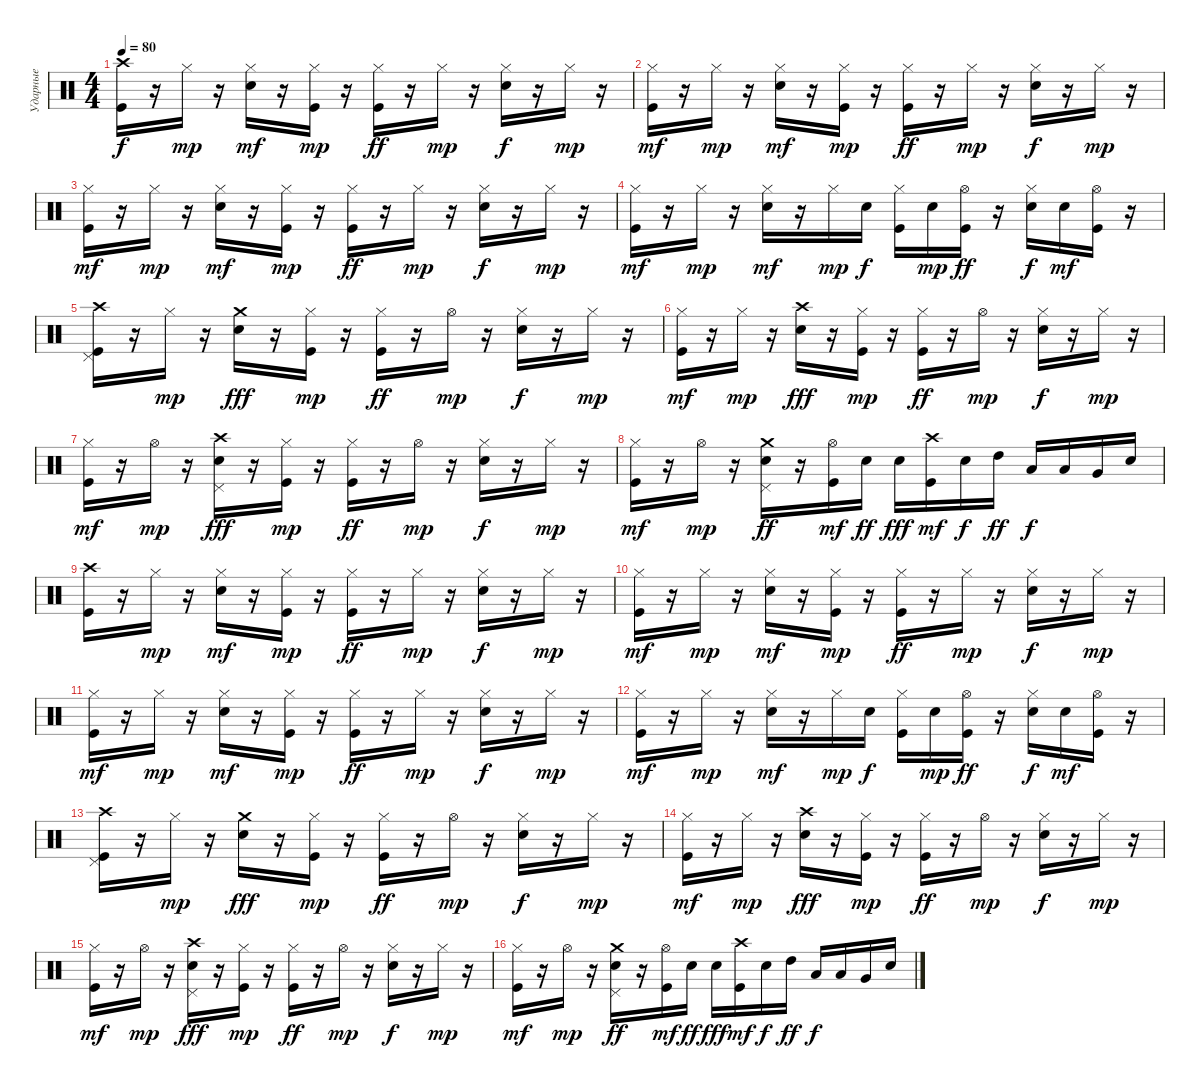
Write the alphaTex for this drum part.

\track ("Ударные" "Ударные") {instrument percussion}
\staff {score}
\articulation defaults
\ts (4 4)
\tempo 80
\clef neutral
\ks c
("Crash high (hit)" "Kick (hit)").16{dy f} r.16 "Hi-Hat (closed)".16{dy mp} r.16 ("Electric Snare (hit)" "Hi-Hat (closed)").16{dy mf} r.16 ("Kick (hit)" "Hi-Hat (closed)").16{dy mp} r.16 ("Hi-Hat (closed)" "Kick (hit)").16{dy ff} r.16 "Hi-Hat (closed)".16{dy mp} r.16 ("Electric Snare (hit)" "Hi-Hat (closed)").16{dy f} r.16 "Hi-Hat (closed)".16{dy mp} r.16 |
("Hi-Hat (closed)" "Kick (hit)").16{dy mf} r.16 "Hi-Hat (closed)".16{dy mp} r.16 ("Electric Snare (hit)" "Hi-Hat (closed)").16{dy mf} r.16 ("Kick (hit)" "Hi-Hat (closed)").16{dy mp} r.16 ("Hi-Hat (closed)" "Kick (hit)").16{dy ff} r.16 "Hi-Hat (closed)".16{dy mp} r.16 ("Electric Snare (hit)" "Hi-Hat (closed)").16{dy f} r.16 "Hi-Hat (closed)".16{dy mp} r.16 |
("Hi-Hat (closed)" "Kick (hit)").16{dy mf} r.16 "Hi-Hat (closed)".16{dy mp} r.16 ("Electric Snare (hit)" "Hi-Hat (closed)").16{dy mf} r.16 ("Kick (hit)" "Hi-Hat (closed)").16{dy mp} r.16 ("Hi-Hat (closed)" "Kick (hit)").16{dy ff} r.16 "Hi-Hat (closed)".16{dy mp} r.16 ("Electric Snare (hit)" "Hi-Hat (closed)").16{dy f} r.16 "Hi-Hat (closed)".16{dy mp} r.16 |
("Hi-Hat (closed)" "Kick (hit)").16{dy mf} r.16 "Hi-Hat (closed)".16{dy mp} r.16 ("Electric Snare (hit)" "Hi-Hat (closed)").16{dy mf} r.16 "Hi-Hat (closed)".16{dy mp} "Electric Snare (hit)".16{dy f} ("Hi-Hat (closed)" "Kick (hit)").16 "Electric Snare (hit)".16{dy mp} ("Hi-Hat (open)" "Kick (hit)").16{dy ff} r.16 ("Electric Snare (hit)" "Hi-Hat (closed)").16{dy f} "Electric Snare (hit)".16{dy mf} ("Hi-Hat (open)" "Kick (hit)").16 r.16 |
("Pedal Hi-Hat (hit)" "Crash high (hit)" "Kick (hit)").16 r.16 "Hi-Hat (closed)".16{dy mp} r.16 ("Electric Snare (hit)" "Crash medium (hit)").16{dy fff} r.16 ("Kick (hit)" "Hi-Hat (closed)").16{dy mp} r.16 ("Hi-Hat (closed)" "Kick (hit)").16{dy ff} r.16 "Hi-Hat (open)".16{dy mp} r.16 ("Electric Snare (hit)" "Hi-Hat (closed)").16{dy f} r.16 "Hi-Hat (closed)".16{dy mp} r.16 |
("Hi-Hat (closed)" "Kick (hit)").16{dy mf} r.16 "Hi-Hat (closed)".16{dy mp} r.16 ("Electric Snare (hit)" "Crash high (hit)").16{dy fff} r.16 ("Kick (hit)" "Hi-Hat (closed)").16{dy mp} r.16 ("Hi-Hat (closed)" "Kick (hit)").16{dy ff} r.16 "Hi-Hat (open)".16{dy mp} r.16 ("Electric Snare (hit)" "Hi-Hat (closed)").16{dy f} r.16 "Hi-Hat (closed)".16{dy mp} r.16 |
("Hi-Hat (closed)" "Kick (hit)").16{dy mf} r.16 "Hi-Hat (open)".16{dy mp} r.16 ("Pedal Hi-Hat (hit)" "Electric Snare (hit)" "Crash high (hit)").16{dy fff} r.16 ("Kick (hit)" "Hi-Hat (closed)").16{dy mp} r.16 ("Hi-Hat (closed)" "Kick (hit)").16{dy ff} r.16 "Hi-Hat (open)".16{dy mp} r.16 ("Electric Snare (hit)" "Hi-Hat (closed)").16{dy f} r.16 "Hi-Hat (closed)".16{dy mp} r.16 |
("Hi-Hat (closed)" "Kick (hit)").16{dy mf} r.16 "Hi-Hat (open)".16{dy mp} r.16 ("Electric Snare (hit)" "Pedal Hi-Hat (hit)" "Crash medium (hit)").16{dy ff} r.16 ("Kick (hit)" "Hi-Hat (open)").16{dy mf} "Electric Snare (hit)".16{dy ff} "Electric Snare (hit)".16{dy fff} ("Kick (hit)" "Crash high (hit)").16{dy mf} "Electric Snare (hit)".16{dy f} "High Tom (hit)".16{dy ff} "Low Tom (hit)".16{dy f} "Low Tom (hit)".16 "Very Low Tom (hit)".16 "Electric Snare (hit)".16 |
("Crash high (hit)" "Kick (hit)").16 r.16 "Hi-Hat (closed)".16{dy mp} r.16 ("Electric Snare (hit)" "Hi-Hat (closed)").16{dy mf} r.16 ("Kick (hit)" "Hi-Hat (closed)").16{dy mp} r.16 ("Hi-Hat (closed)" "Kick (hit)").16{dy ff} r.16 "Hi-Hat (closed)".16{dy mp} r.16 ("Electric Snare (hit)" "Hi-Hat (closed)").16{dy f} r.16 "Hi-Hat (closed)".16{dy mp} r.16 |
("Hi-Hat (closed)" "Kick (hit)").16{dy mf} r.16 "Hi-Hat (closed)".16{dy mp} r.16 ("Electric Snare (hit)" "Hi-Hat (closed)").16{dy mf} r.16 ("Kick (hit)" "Hi-Hat (closed)").16{dy mp} r.16 ("Hi-Hat (closed)" "Kick (hit)").16{dy ff} r.16 "Hi-Hat (closed)".16{dy mp} r.16 ("Electric Snare (hit)" "Hi-Hat (closed)").16{dy f} r.16 "Hi-Hat (closed)".16{dy mp} r.16 |
("Hi-Hat (closed)" "Kick (hit)").16{dy mf} r.16 "Hi-Hat (closed)".16{dy mp} r.16 ("Electric Snare (hit)" "Hi-Hat (closed)").16{dy mf} r.16 ("Kick (hit)" "Hi-Hat (closed)").16{dy mp} r.16 ("Hi-Hat (closed)" "Kick (hit)").16{dy ff} r.16 "Hi-Hat (closed)".16{dy mp} r.16 ("Electric Snare (hit)" "Hi-Hat (closed)").16{dy f} r.16 "Hi-Hat (closed)".16{dy mp} r.16 |
("Hi-Hat (closed)" "Kick (hit)").16{dy mf} r.16 "Hi-Hat (closed)".16{dy mp} r.16 ("Electric Snare (hit)" "Hi-Hat (closed)").16{dy mf} r.16 "Hi-Hat (closed)".16{dy mp} "Electric Snare (hit)".16{dy f} ("Hi-Hat (closed)" "Kick (hit)").16 "Electric Snare (hit)".16{dy mp} ("Hi-Hat (open)" "Kick (hit)").16{dy ff} r.16 ("Electric Snare (hit)" "Hi-Hat (closed)").16{dy f} "Electric Snare (hit)".16{dy mf} ("Hi-Hat (open)" "Kick (hit)").16 r.16 |
("Pedal Hi-Hat (hit)" "Crash high (hit)" "Kick (hit)").16 r.16 "Hi-Hat (closed)".16{dy mp} r.16 ("Electric Snare (hit)" "Crash medium (hit)").16{dy fff} r.16 ("Kick (hit)" "Hi-Hat (closed)").16{dy mp} r.16 ("Hi-Hat (closed)" "Kick (hit)").16{dy ff} r.16 "Hi-Hat (open)".16{dy mp} r.16 ("Electric Snare (hit)" "Hi-Hat (closed)").16{dy f} r.16 "Hi-Hat (closed)".16{dy mp} r.16 |
("Hi-Hat (closed)" "Kick (hit)").16{dy mf} r.16 "Hi-Hat (closed)".16{dy mp} r.16 ("Electric Snare (hit)" "Crash high (hit)").16{dy fff} r.16 ("Kick (hit)" "Hi-Hat (closed)").16{dy mp} r.16 ("Hi-Hat (closed)" "Kick (hit)").16{dy ff} r.16 "Hi-Hat (open)".16{dy mp} r.16 ("Electric Snare (hit)" "Hi-Hat (closed)").16{dy f} r.16 "Hi-Hat (closed)".16{dy mp} r.16 |
("Hi-Hat (closed)" "Kick (hit)").16{dy mf} r.16 "Hi-Hat (open)".16{dy mp} r.16 ("Pedal Hi-Hat (hit)" "Electric Snare (hit)" "Crash high (hit)").16{dy fff} r.16 ("Kick (hit)" "Hi-Hat (closed)").16{dy mp} r.16 ("Hi-Hat (closed)" "Kick (hit)").16{dy ff} r.16 "Hi-Hat (open)".16{dy mp} r.16 ("Electric Snare (hit)" "Hi-Hat (closed)").16{dy f} r.16 "Hi-Hat (closed)".16{dy mp} r.16 |
("Hi-Hat (closed)" "Kick (hit)").16{dy mf} r.16 "Hi-Hat (open)".16{dy mp} r.16 ("Electric Snare (hit)" "Pedal Hi-Hat (hit)" "Crash medium (hit)").16{dy ff} r.16 ("Kick (hit)" "Hi-Hat (open)").16{dy mf} "Electric Snare (hit)".16{dy ff} "Electric Snare (hit)".16{dy fff} ("Kick (hit)" "Crash high (hit)").16{dy mf} "Electric Snare (hit)".16{dy f} "High Tom (hit)".16{dy ff} "Low Tom (hit)".16{dy f} "Low Tom (hit)".16 "Very Low Tom (hit)".16 "Electric Snare (hit)".16
